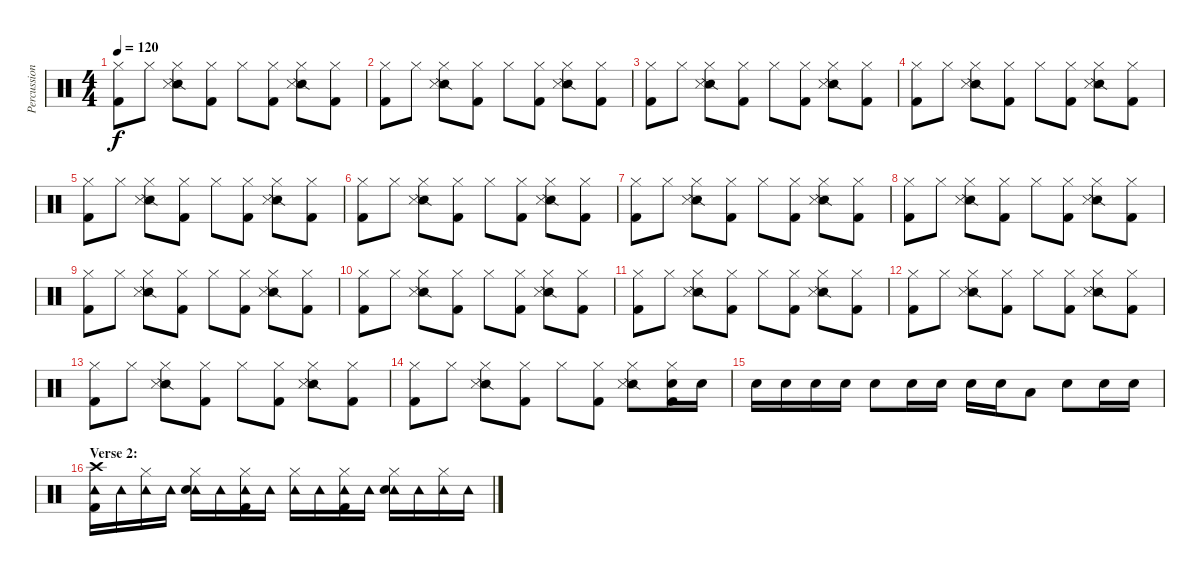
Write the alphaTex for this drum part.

\track ("Percussion" "Percussion") {instrument percussion}
\staff {score}
\articulation defaults
\ts (4 4)
\tempo 120
\clef neutral
\ks c
("Hi-Hat (closed)" "Kick (hit) 2").8{dy f} "Hi-Hat (closed)".8 ("Hi-Hat (closed)" "Snare (side stick) 2" "Snare (side stick) 3").8 ("Hi-Hat (closed)" "Kick (hit) 2").8 "Hi-Hat (closed)".8 ("Hi-Hat (closed)" "Kick (hit) 2").8 ("Hi-Hat (closed)" "Snare (side stick) 2" "Snare (side stick) 3").8 ("Hi-Hat (closed)" "Kick (hit) 2").8 |
("Hi-Hat (closed)" "Kick (hit) 2").8 "Hi-Hat (closed)".8 ("Hi-Hat (closed)" "Snare (side stick) 2" "Snare (side stick) 3").8 ("Hi-Hat (closed)" "Kick (hit) 2").8 "Hi-Hat (closed)".8 ("Hi-Hat (closed)" "Kick (hit) 2").8 ("Hi-Hat (closed)" "Snare (side stick) 2" "Snare (side stick) 3").8 ("Hi-Hat (closed)" "Kick (hit) 2").8 |
("Hi-Hat (closed)" "Kick (hit) 2").8 "Hi-Hat (closed)".8 ("Hi-Hat (closed)" "Snare (side stick) 2" "Snare (side stick) 3").8 ("Hi-Hat (closed)" "Kick (hit) 2").8 "Hi-Hat (closed)".8 ("Hi-Hat (closed)" "Kick (hit) 2").8 ("Hi-Hat (closed)" "Snare (side stick) 2" "Snare (side stick) 3").8 ("Hi-Hat (closed)" "Kick (hit) 2").8 |
("Hi-Hat (closed)" "Kick (hit) 2").8 "Hi-Hat (closed)".8 ("Hi-Hat (closed)" "Snare (side stick) 2" "Snare (side stick) 3").8 ("Hi-Hat (closed)" "Kick (hit) 2").8 "Hi-Hat (closed)".8 ("Hi-Hat (closed)" "Kick (hit) 2").8 ("Hi-Hat (closed)" "Snare (side stick) 2" "Snare (side stick) 3").8 ("Hi-Hat (closed)" "Kick (hit) 2").8 |
("Hi-Hat (closed)" "Kick (hit) 2").8 "Hi-Hat (closed)".8 ("Hi-Hat (closed)" "Snare (side stick) 2" "Snare (side stick) 3").8 ("Hi-Hat (closed)" "Kick (hit) 2").8 "Hi-Hat (closed)".8 ("Hi-Hat (closed)" "Kick (hit) 2").8 ("Hi-Hat (closed)" "Snare (side stick) 2" "Snare (side stick) 3").8 ("Hi-Hat (closed)" "Kick (hit) 2").8 |
("Hi-Hat (closed)" "Kick (hit) 2").8 "Hi-Hat (closed)".8 ("Hi-Hat (closed)" "Snare (side stick) 2" "Snare (side stick) 3").8 ("Hi-Hat (closed)" "Kick (hit) 2").8 "Hi-Hat (closed)".8 ("Hi-Hat (closed)" "Kick (hit) 2").8 ("Hi-Hat (closed)" "Snare (side stick) 2" "Snare (side stick) 3").8 ("Hi-Hat (closed)" "Kick (hit) 2").8 |
("Hi-Hat (closed)" "Kick (hit) 2").8 "Hi-Hat (closed)".8 ("Hi-Hat (closed)" "Snare (side stick) 2" "Snare (side stick) 3").8 ("Hi-Hat (closed)" "Kick (hit) 2").8 "Hi-Hat (closed)".8 ("Hi-Hat (closed)" "Kick (hit) 2").8 ("Hi-Hat (closed)" "Snare (side stick) 2" "Snare (side stick) 3").8 ("Hi-Hat (closed)" "Kick (hit) 2").8 |
("Hi-Hat (closed)" "Kick (hit) 2").8 "Hi-Hat (closed)".8 ("Hi-Hat (closed)" "Snare (side stick) 2" "Snare (side stick) 3").8 ("Hi-Hat (closed)" "Kick (hit) 2").8 "Hi-Hat (closed)".8 ("Hi-Hat (closed)" "Kick (hit) 2").8 ("Hi-Hat (closed)" "Snare (side stick) 2" "Snare (side stick) 3").8 ("Hi-Hat (closed)" "Kick (hit) 2").8 |
("Hi-Hat (closed)" "Kick (hit) 2").8 "Hi-Hat (closed)".8 ("Hi-Hat (closed)" "Snare (side stick) 2" "Snare (side stick) 3").8 ("Hi-Hat (closed)" "Kick (hit) 2").8 "Hi-Hat (closed)".8 ("Hi-Hat (closed)" "Kick (hit) 2").8 ("Hi-Hat (closed)" "Snare (side stick) 2" "Snare (side stick) 3").8 ("Hi-Hat (closed)" "Kick (hit) 2").8 |
("Hi-Hat (closed)" "Kick (hit) 2").8 "Hi-Hat (closed)".8 ("Hi-Hat (closed)" "Snare (side stick) 2" "Snare (side stick) 3").8 ("Hi-Hat (closed)" "Kick (hit) 2").8 "Hi-Hat (closed)".8 ("Hi-Hat (closed)" "Kick (hit) 2").8 ("Hi-Hat (closed)" "Snare (side stick) 2" "Snare (side stick) 3").8 ("Hi-Hat (closed)" "Kick (hit) 2").8 |
("Hi-Hat (closed)" "Kick (hit) 2").8 "Hi-Hat (closed)".8 ("Hi-Hat (closed)" "Snare (side stick) 2" "Snare (side stick) 3").8 ("Hi-Hat (closed)" "Kick (hit) 2").8 "Hi-Hat (closed)".8 ("Hi-Hat (closed)" "Kick (hit) 2").8 ("Hi-Hat (closed)" "Snare (side stick) 2" "Snare (side stick) 3").8 ("Hi-Hat (closed)" "Kick (hit) 2").8 |
("Hi-Hat (closed)" "Kick (hit) 2").8 "Hi-Hat (closed)".8 ("Hi-Hat (closed)" "Snare (side stick) 2" "Snare (side stick) 3").8 ("Hi-Hat (closed)" "Kick (hit) 2").8 "Hi-Hat (closed)".8 ("Hi-Hat (closed)" "Kick (hit) 2").8 ("Hi-Hat (closed)" "Snare (side stick) 2" "Snare (side stick) 3").8 ("Hi-Hat (closed)" "Kick (hit) 2").8 |
("Hi-Hat (closed)" "Kick (hit) 2").8 "Hi-Hat (closed)".8 ("Hi-Hat (closed)" "Snare (side stick) 2" "Snare (side stick) 3").8 ("Hi-Hat (closed)" "Kick (hit) 2").8 "Hi-Hat (closed)".8 ("Hi-Hat (closed)" "Kick (hit) 2").8 ("Hi-Hat (closed)" "Snare (side stick) 2" "Snare (side stick) 3").8 ("Hi-Hat (closed)" "Kick (hit) 2").8 |
("Hi-Hat (closed)" "Kick (hit) 2").8 "Hi-Hat (closed)".8 ("Hi-Hat (closed)" "Snare (side stick) 2" "Snare (side stick) 3").8 ("Hi-Hat (closed)" "Kick (hit) 2").8 "Hi-Hat (closed)".8 ("Hi-Hat (closed)" "Kick (hit) 2").8 ("Hi-Hat (closed)" "Snare (side stick) 2" "Snare (side stick) 3").8 ("Hi-Hat (closed)" "Electric Snare (hit)" "Kick (hit) 2").16 "Electric Snare (hit)".16 |
"Electric Snare (hit)".16 "Electric Snare (hit)".16 "Electric Snare (hit)".16 "Electric Snare (hit)".16 "Electric Snare (hit)".8 "Electric Snare (hit)".16 "Electric Snare (hit)".16 "Electric Snare (hit)".16 "Electric Snare (hit)".16 "Low Tom (hit)".8 "Electric Snare (hit)".8 "Electric Snare (hit)".16 "Electric Snare (hit)".16 |
\section ("" "Verse 2:")
("Crash high (hit)" "Tambourine (hit)" "Kick (hit) 2").16 "Tambourine (hit)".16 ("Hi-Hat (closed)" "Tambourine (hit)").16 "Tambourine (hit)".16 ("Hi-Hat (closed)" "Tambourine (hit)" "Electric Snare (hit)").16 "Tambourine (hit)".16 ("Hi-Hat (closed)" "Tambourine (hit)" "Kick (hit) 2").16 "Tambourine (hit)".16 ("Hi-Hat (closed)" "Tambourine (hit)").16 "Tambourine (hit)".16 ("Hi-Hat (closed)" "Tambourine (hit)" "Kick (hit) 2").16 "Tambourine (hit)".16 ("Hi-Hat (closed)" "Tambourine (hit)" "Electric Snare (hit)").16 "Tambourine (hit)".16 ("Hi-Hat (closed)" "Tambourine (hit)").16 "Tambourine (hit)".16
